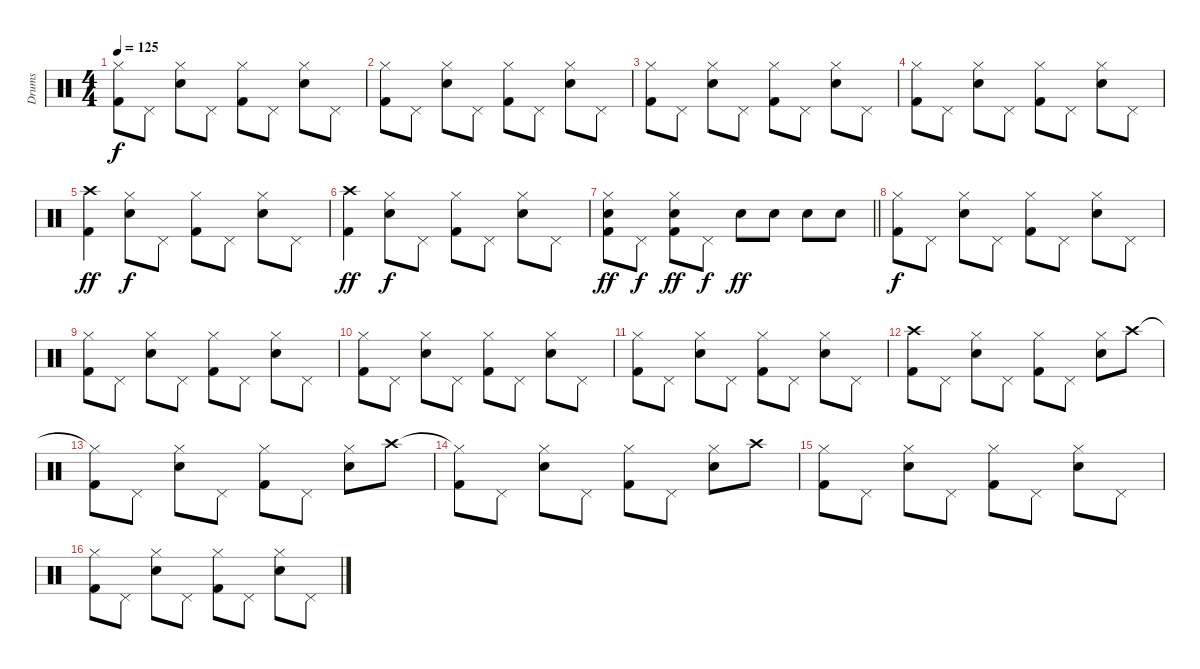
\track ("Drums" "Drums") {instrument percussion}
\staff {score}
\articulation defaults
\ts (4 4)
\tempo 125
\clef neutral
\ks c
("Hi-Hat (closed)" "Kick (hit) 2").8{dy f} "Pedal Hi-Hat (hit)".8 ("Hi-Hat (closed)" "Electric Snare (hit)").8 "Pedal Hi-Hat (hit)".8 ("Hi-Hat (closed)" "Kick (hit) 2").8 "Pedal Hi-Hat (hit)".8 ("Hi-Hat (closed)" "Electric Snare (hit)").8 "Pedal Hi-Hat (hit)".8 |
("Hi-Hat (closed)" "Kick (hit) 2").8 "Pedal Hi-Hat (hit)".8 ("Hi-Hat (closed)" "Electric Snare (hit)").8 "Pedal Hi-Hat (hit)".8 ("Hi-Hat (closed)" "Kick (hit) 2").8 "Pedal Hi-Hat (hit)".8 ("Hi-Hat (closed)" "Electric Snare (hit)").8 "Pedal Hi-Hat (hit)".8 |
("Hi-Hat (closed)" "Kick (hit) 2").8 "Pedal Hi-Hat (hit)".8 ("Hi-Hat (closed)" "Electric Snare (hit)").8 "Pedal Hi-Hat (hit)".8 ("Hi-Hat (closed)" "Kick (hit) 2").8 "Pedal Hi-Hat (hit)".8 ("Hi-Hat (closed)" "Electric Snare (hit)").8 "Pedal Hi-Hat (hit)".8 |
("Hi-Hat (closed)" "Kick (hit) 2").8 "Pedal Hi-Hat (hit)".8 ("Hi-Hat (closed)" "Electric Snare (hit)").8 "Pedal Hi-Hat (hit)".8 ("Hi-Hat (closed)" "Kick (hit) 2").8 "Pedal Hi-Hat (hit)".8 ("Hi-Hat (closed)" "Electric Snare (hit)").8 "Pedal Hi-Hat (hit)".8 |
("Crash high (hit)" "Kick (hit) 2").4{dy ff} ("Hi-Hat (closed)" "Electric Snare (hit)").8{dy f} "Pedal Hi-Hat (hit)".8 ("Hi-Hat (closed)" "Kick (hit) 2").8 "Pedal Hi-Hat (hit)".8 ("Hi-Hat (closed)" "Electric Snare (hit)").8 "Pedal Hi-Hat (hit)".8 |
("Crash high (hit)" "Kick (hit) 2").4{dy ff} ("Hi-Hat (closed)" "Electric Snare (hit)").8{dy f} "Pedal Hi-Hat (hit)".8 ("Hi-Hat (closed)" "Kick (hit) 2").8 "Pedal Hi-Hat (hit)".8 ("Hi-Hat (closed)" "Electric Snare (hit)").8 "Pedal Hi-Hat (hit)".8 |
\barLineRight lightlight
("Hi-Hat (closed)" "Snare (hit) 2" "Kick (hit) 2").8{dy ff} "Pedal Hi-Hat (hit)".8{dy f} ("Hi-Hat (closed)" "Snare (hit) 2" "Kick (hit) 2").8{dy ff} "Pedal Hi-Hat (hit)".8{dy f} "Snare (hit) 2".8{dy ff} "Snare (hit) 2".8 "Snare (hit) 2".8 "Snare (hit) 2".8 |
("Hi-Hat (closed)" "Kick (hit) 2").8{dy f} "Pedal Hi-Hat (hit)".8 ("Hi-Hat (closed)" "Electric Snare (hit)").8 "Pedal Hi-Hat (hit)".8 ("Hi-Hat (closed)" "Kick (hit) 2").8 "Pedal Hi-Hat (hit)".8 ("Hi-Hat (closed)" "Electric Snare (hit)").8 "Pedal Hi-Hat (hit)".8 |
("Hi-Hat (closed)" "Kick (hit) 2").8 "Pedal Hi-Hat (hit)".8 ("Hi-Hat (closed)" "Electric Snare (hit)").8 "Pedal Hi-Hat (hit)".8 ("Hi-Hat (closed)" "Kick (hit) 2").8 "Pedal Hi-Hat (hit)".8 ("Hi-Hat (closed)" "Electric Snare (hit)").8 "Pedal Hi-Hat (hit)".8 |
("Hi-Hat (closed)" "Kick (hit) 2").8 "Pedal Hi-Hat (hit)".8 ("Hi-Hat (closed)" "Electric Snare (hit)").8 "Pedal Hi-Hat (hit)".8 ("Hi-Hat (closed)" "Kick (hit) 2").8 "Pedal Hi-Hat (hit)".8 ("Hi-Hat (closed)" "Electric Snare (hit)").8 "Pedal Hi-Hat (hit)".8 |
("Hi-Hat (closed)" "Kick (hit) 2").8 "Pedal Hi-Hat (hit)".8 ("Hi-Hat (closed)" "Electric Snare (hit)").8 "Pedal Hi-Hat (hit)".8 ("Hi-Hat (closed)" "Kick (hit) 2").8 "Pedal Hi-Hat (hit)".8 ("Hi-Hat (closed)" "Electric Snare (hit)").8 "Pedal Hi-Hat (hit)".8 |
("Crash high (hit)" "Kick (hit) 2").8 "Pedal Hi-Hat (hit)".8 ("Hi-Hat (closed)" "Electric Snare (hit)").8 "Pedal Hi-Hat (hit)".8 ("Hi-Hat (closed)" "Kick (hit) 2").8 "Pedal Hi-Hat (hit)".8 ("Hi-Hat (closed)" "Electric Snare (hit)").8 "Crash high (hit)".8 |
("Hi-Hat (closed)"{t} "Kick (hit) 2").8 "Pedal Hi-Hat (hit)".8 ("Hi-Hat (closed)" "Electric Snare (hit)").8 "Pedal Hi-Hat (hit)".8 ("Hi-Hat (closed)" "Kick (hit) 2").8 "Pedal Hi-Hat (hit)".8 ("Hi-Hat (closed)" "Electric Snare (hit)").8 "Crash high (hit)".8 |
("Hi-Hat (closed)"{t} "Kick (hit) 2").8 "Pedal Hi-Hat (hit)".8 ("Hi-Hat (closed)" "Electric Snare (hit)").8 "Pedal Hi-Hat (hit)".8 ("Hi-Hat (closed)" "Kick (hit) 2").8 "Pedal Hi-Hat (hit)".8 ("Hi-Hat (closed)" "Electric Snare (hit)").8 "Crash high (hit)".8 |
("Hi-Hat (closed)" "Kick (hit) 2").8 "Pedal Hi-Hat (hit)".8 ("Hi-Hat (closed)" "Electric Snare (hit)").8 "Pedal Hi-Hat (hit)".8 ("Hi-Hat (closed)" "Kick (hit) 2").8 "Pedal Hi-Hat (hit)".8 ("Hi-Hat (closed)" "Electric Snare (hit)").8 "Pedal Hi-Hat (hit)".8 |
("Hi-Hat (closed)" "Kick (hit) 2").8 "Pedal Hi-Hat (hit)".8 ("Hi-Hat (closed)" "Electric Snare (hit)").8 "Pedal Hi-Hat (hit)".8 ("Hi-Hat (closed)" "Kick (hit) 2").8 "Pedal Hi-Hat (hit)".8 ("Hi-Hat (closed)" "Electric Snare (hit)").8 "Pedal Hi-Hat (hit)".8
